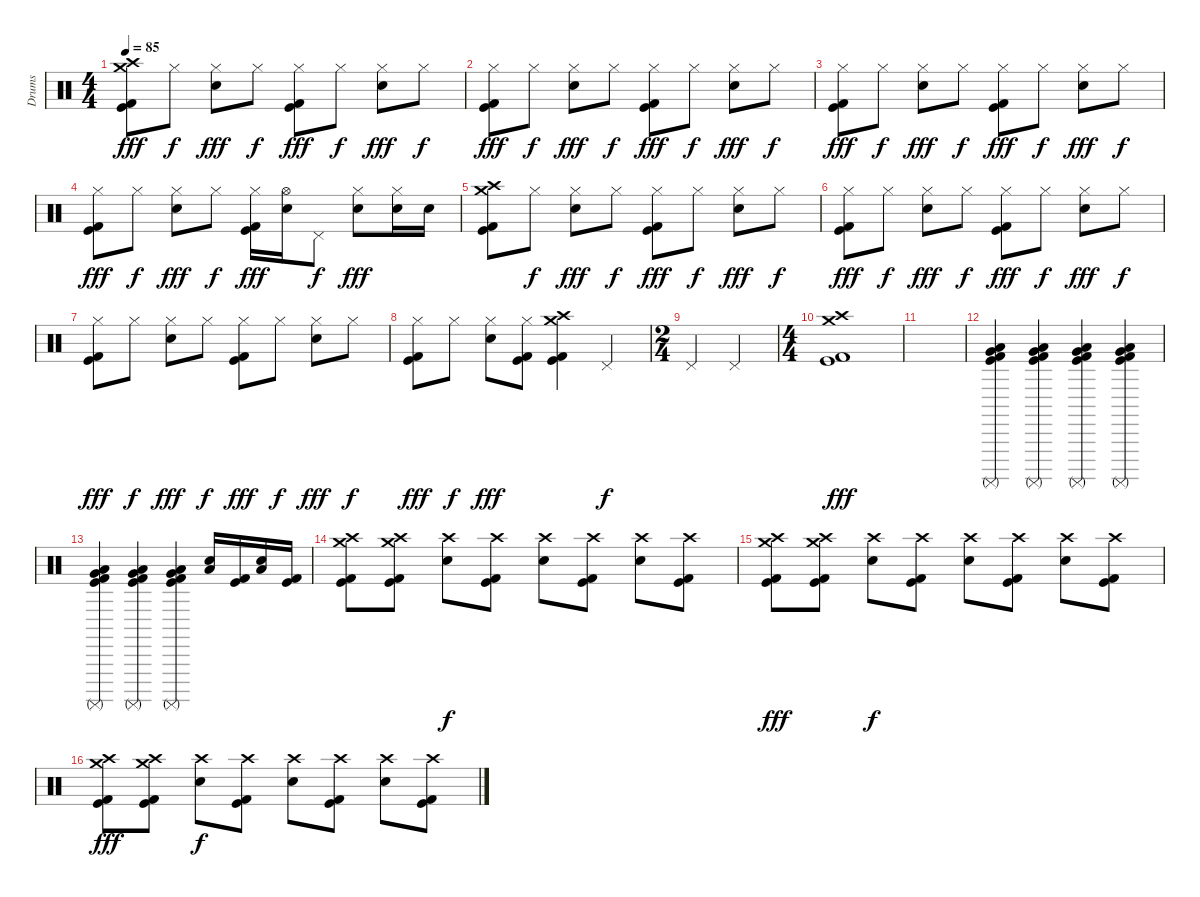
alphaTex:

\track ("Drums" "Drums") {instrument percussion}
\staff {score}
\articulation defaults
\ts (4 4)
\tempo 85
\clef neutral
\ks c
("Crash high (hit)" "Crash medium (hit)" "Kick (hit) 2" "Kick (hit)").8{dy fff} "Hi-Hat (closed)".8{dy f} ("Hi-Hat (closed)" "Snare (hit) 2").8{dy fff} "Hi-Hat (closed)".8{dy f} ("Hi-Hat (closed)" "Kick (hit) 2" "Kick (hit)").8{dy fff} "Hi-Hat (closed)".8{dy f} ("Hi-Hat (closed)" "Snare (hit) 2").8{dy fff} "Hi-Hat (closed)".8{dy f} |
("Hi-Hat (closed)" "Kick (hit) 2" "Kick (hit)").8{dy fff} "Hi-Hat (closed)".8{dy f} ("Hi-Hat (closed)" "Snare (hit) 2").8{dy fff} "Hi-Hat (closed)".8{dy f} ("Hi-Hat (closed)" "Kick (hit) 2" "Kick (hit)").8{dy fff} "Hi-Hat (closed)".8{dy f} ("Hi-Hat (closed)" "Snare (hit) 2").8{dy fff} "Hi-Hat (closed)".8{dy f} |
("Hi-Hat (closed)" "Kick (hit) 2" "Kick (hit)").8{dy fff} "Hi-Hat (closed)".8{dy f} ("Hi-Hat (closed)" "Snare (hit) 2").8{dy fff} "Hi-Hat (closed)".8{dy f} ("Hi-Hat (closed)" "Kick (hit) 2" "Kick (hit)").8{dy fff} "Hi-Hat (closed)".8{dy f} ("Hi-Hat (closed)" "Snare (hit) 2").8{dy fff} "Hi-Hat (closed)".8{dy f} |
("Hi-Hat (closed)" "Kick (hit) 2" "Kick (hit)").8{dy fff} "Hi-Hat (closed)".8{dy f} ("Hi-Hat (closed)" "Snare (hit) 2").8{dy fff} "Hi-Hat (closed)".8{dy f} ("Hi-Hat (closed)" "Kick (hit) 2" "Kick (hit)").16{dy fff} ("Hi-Hat (open)" "Snare (hit) 2").16 "Pedal Hi-Hat (hit)".8{dy f} ("Hi-Hat (closed)" "Snare (hit) 2").8{dy fff} ("Hi-Hat (closed)" "Snare (hit) 2").16 "Snare (hit) 2".16 |
("Crash high (hit)" "Crash medium (hit)" "Kick (hit) 2" "Kick (hit)").8 "Hi-Hat (closed)".8{dy f} ("Hi-Hat (closed)" "Snare (hit) 2").8{dy fff} "Hi-Hat (closed)".8{dy f} ("Hi-Hat (closed)" "Kick (hit) 2" "Kick (hit)").8{dy fff} "Hi-Hat (closed)".8{dy f} ("Hi-Hat (closed)" "Snare (hit) 2").8{dy fff} "Hi-Hat (closed)".8{dy f} |
("Hi-Hat (closed)" "Kick (hit) 2" "Kick (hit)").8{dy fff} "Hi-Hat (closed)".8{dy f} ("Hi-Hat (closed)" "Snare (hit) 2").8{dy fff} "Hi-Hat (closed)".8{dy f} ("Hi-Hat (closed)" "Kick (hit) 2" "Kick (hit)").8{dy fff} "Hi-Hat (closed)".8{dy f} ("Hi-Hat (closed)" "Snare (hit) 2").8{dy fff} "Hi-Hat (closed)".8{dy f} |
("Hi-Hat (closed)" "Kick (hit) 2" "Kick (hit)").8{dy fff} "Hi-Hat (closed)".8{dy f} ("Hi-Hat (closed)" "Snare (hit) 2").8{dy fff} "Hi-Hat (closed)".8{dy f} ("Hi-Hat (closed)" "Kick (hit) 2" "Kick (hit)").8{dy fff} "Hi-Hat (closed)".8{dy f} ("Hi-Hat (closed)" "Snare (hit) 2").8{dy fff} "Hi-Hat (closed)".8{dy f} |
("Hi-Hat (closed)" "Kick (hit) 2" "Kick (hit)").8{dy fff} "Hi-Hat (closed)".8{dy f} ("Hi-Hat (closed)" "Snare (hit) 2").8{dy fff} ("Hi-Hat (closed)" "Kick (hit) 2" "Kick (hit)").8 ("Crash high (hit)" "Crash medium (hit)" "Kick (hit) 2" "Kick (hit)").4 "Pedal Hi-Hat (hit)".4{dy f} |
\ts (2 4)
"Pedal Hi-Hat (hit)".4 "Pedal Hi-Hat (hit)".4 |
\ts (4 4)
("Crash high (hit)" "Crash medium (hit)" "Kick (hit) 2" "Kick (hit)").1{dy fff} |
|
("Low Floor Tom (hit)" "Very Low Tom (hit)" "Surdo (mute)" "Kick (hit) 2" "Kick (hit)").4 ("Low Floor Tom (hit)" "Very Low Tom (hit)" "Surdo (mute)" "Kick (hit) 2" "Kick (hit)").4 ("Low Floor Tom (hit)" "Very Low Tom (hit)" "Surdo (mute)" "Kick (hit) 2" "Kick (hit)").4 ("Low Floor Tom (hit)" "Very Low Tom (hit)" "Surdo (mute)" "Kick (hit) 2" "Kick (hit)").4 |
("Low Floor Tom (hit)" "Very Low Tom (hit)" "Surdo (mute)" "Kick (hit) 2" "Kick (hit)").4 ("Low Floor Tom (hit)" "Very Low Tom (hit)" "Surdo (mute)" "Kick (hit) 2" "Kick (hit)").4 ("Low Floor Tom (hit)" "Very Low Tom (hit)" "Surdo (mute)" "Kick (hit) 2" "Kick (hit)").4 ("Low Floor Tom (hit)" "Snare (hit) 2").16{volume 16} ("Kick (hit) 2" "Kick (hit)").16 ("Low Floor Tom (hit)" "Snare (hit) 2").16 ("Kick (hit) 2" "Kick (hit)").16 |
("Crash high (hit)" "Crash medium (hit)" "Kick (hit) 2" "Kick (hit)").8{volume 14} ("Crash high (hit)" "Crash medium (hit)" "Kick (hit) 2" "Kick (hit)").8 ("Crash high (hit)" "Snare (hit) 2").8{dy f} ("Crash high (hit)" "Kick (hit) 2" "Kick (hit)").8 ("Crash high (hit)" "Snare (hit) 2").8 ("Crash high (hit)" "Kick (hit) 2" "Kick (hit)").8 ("Crash high (hit)" "Snare (hit) 2").8 ("Crash high (hit)" "Kick (hit) 2" "Kick (hit)").8 |
("Crash high (hit)" "Crash medium (hit)" "Kick (hit) 2" "Kick (hit)").8{dy fff} ("Crash high (hit)" "Crash medium (hit)" "Kick (hit) 2" "Kick (hit)").8 ("Crash high (hit)" "Snare (hit) 2").8{dy f} ("Crash high (hit)" "Kick (hit) 2" "Kick (hit)").8 ("Crash high (hit)" "Snare (hit) 2").8 ("Crash high (hit)" "Kick (hit) 2" "Kick (hit)").8 ("Crash high (hit)" "Snare (hit) 2").8 ("Crash high (hit)" "Kick (hit) 2" "Kick (hit)").8 |
("Crash high (hit)" "Crash medium (hit)" "Kick (hit) 2" "Kick (hit)").8{dy fff} ("Crash high (hit)" "Crash medium (hit)" "Kick (hit) 2" "Kick (hit)").8 ("Crash high (hit)" "Snare (hit) 2").8{dy f} ("Crash high (hit)" "Kick (hit) 2" "Kick (hit)").8 ("Crash high (hit)" "Snare (hit) 2").8 ("Crash high (hit)" "Kick (hit) 2" "Kick (hit)").8 ("Crash high (hit)" "Snare (hit) 2").8 ("Crash high (hit)" "Kick (hit) 2" "Kick (hit)").8
